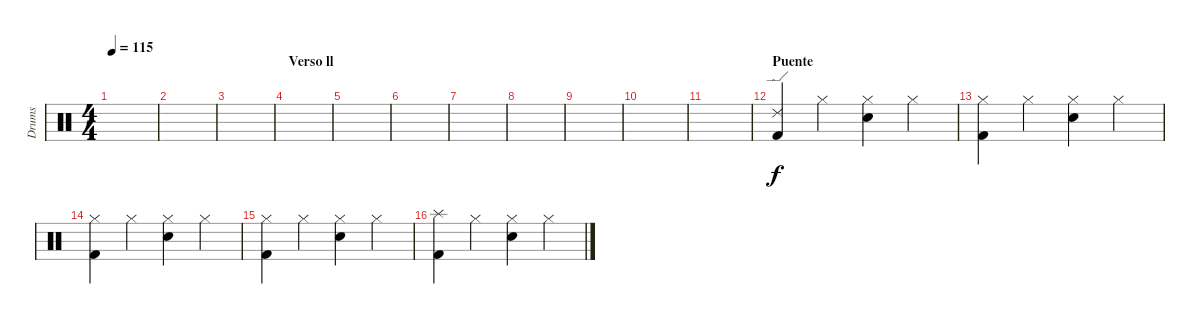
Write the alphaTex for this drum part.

\track ("Drums" "Drums") {instrument percussion}
\staff {score}
\articulation defaults
\ts (4 4)
\tempo 115
\clef neutral
\ks c
|
|
|
\section ("" "Verso ll")
|
|
|
|
|
|
|
|
\section ("" "Puente")
("Ride (edge) 2" "Kick (hit) 2").4 "Hi-Hat (closed)".4 ("Hi-Hat (closed)" "Snare (hit) 2").4 "Hi-Hat (closed)".4 |
("Hi-Hat (closed)" "Kick (hit) 2").4 "Hi-Hat (closed)".4 ("Hi-Hat (closed)" "Snare (hit) 2").4 "Hi-Hat (closed)".4 |
("Hi-Hat (closed)" "Kick (hit) 2").4 "Hi-Hat (closed)".4 ("Hi-Hat (closed)" "Snare (hit) 2").4 "Hi-Hat (closed)".4 |
("Hi-Hat (closed)" "Kick (hit) 2").4 "Hi-Hat (closed)".4 ("Hi-Hat (closed)" "Snare (hit) 2").4 "Hi-Hat (closed)".4 |
("Splash (hit)" "Kick (hit) 2").4 "Hi-Hat (closed)".4 ("Hi-Hat (closed)" "Snare (hit) 2").4 "Hi-Hat (closed)".4
